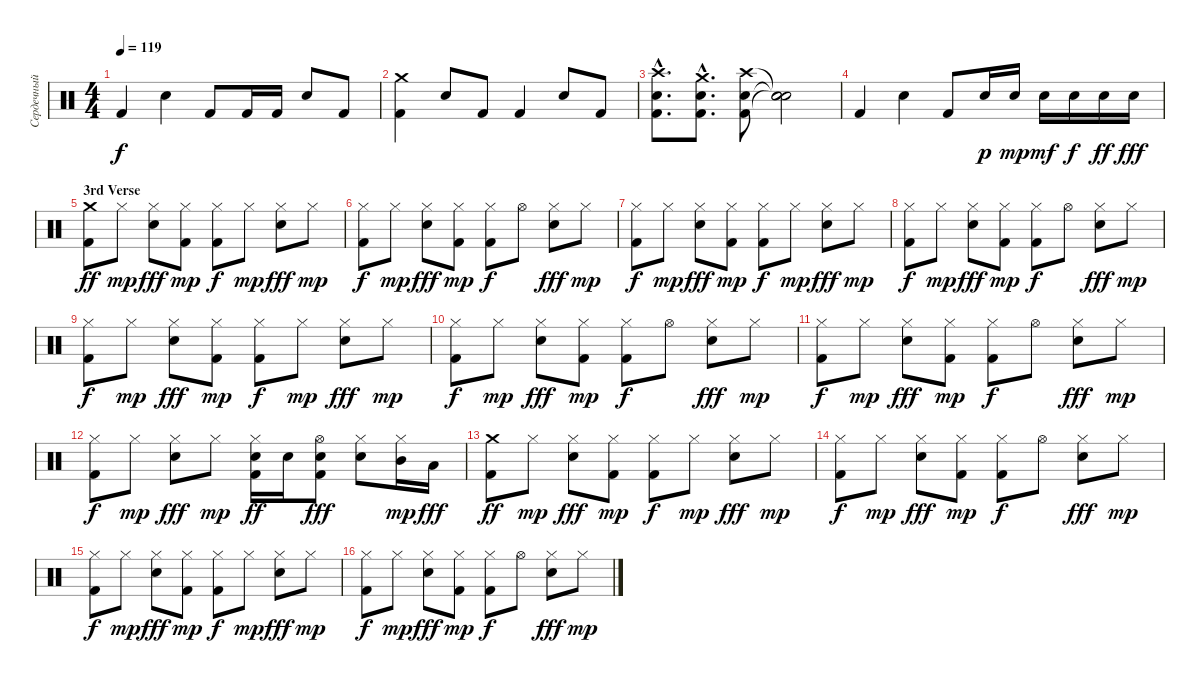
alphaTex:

\track ("Сердечный (Ударные)" "Сердечный ") {instrument percussion}
\staff {score}
\articulation defaults
\ts (4 4)
\tempo 119
\clef neutral
\ks c "Kick (hit) 2".4{dy f} "Electric Snare (hit)".4 "Kick (hit) 2".8 "Kick (hit) 2".16 "Kick (hit) 2".16 "Electric Snare (hit)".8 "Kick (hit) 2".8
|
("Kick (hit) 2" "Crash medium (hit)").4 "Electric Snare (hit)".8 "Kick (hit) 2".8 "Kick (hit) 2".4 "Electric Snare (hit)".8 "Kick (hit) 2".8 |
("Kick (hit) 2"{hac} "Electric Snare (hit)"{hac} "Crash high (hit)"{hac}).8{d} ("Kick (hit) 2"{hac} "Electric Snare (hit)"{hac} "Crash medium (hit)"{hac}).8{d} ("Kick (hit) 2" "Electric Snare (hit)" "Crash high (hit)").8 ("Snare (hit)"{t} "Snare (hit)"{t} "Snare (hit)"{t}).2 |
"Kick (hit) 2".4 "Electric Snare (hit)".4 "Kick (hit) 2".8 "Electric Snare (hit)".16{dy p} "Electric Snare (hit)".16{dy mp} "Electric Snare (hit)".16{dy mf} "Electric Snare (hit)".16{dy f} "Electric Snare (hit)".16{dy ff} "Electric Snare (hit)".16{dy fff} |
\section ("" "3rd Verse")
("Kick (hit) 2" "Crash medium (hit)").8{dy ff} "Hi-Hat (closed)".8{dy mp} ("Hi-Hat (closed)" "Electric Snare (hit)").8{dy fff} ("Hi-Hat (closed)" "Kick (hit) 2").8{dy mp} ("Hi-Hat (closed)" "Kick (hit) 2").8{dy f} "Hi-Hat (closed)".8{dy mp} ("Hi-Hat (closed)" "Electric Snare (hit)").8{dy fff} "Hi-Hat (closed)".8{dy mp} |
("Kick (hit) 2" "Hi-Hat (closed)").8{dy f} "Hi-Hat (closed)".8{dy mp} ("Hi-Hat (closed)" "Electric Snare (hit)").8{dy fff} ("Hi-Hat (closed)" "Kick (hit) 2").8{dy mp} ("Hi-Hat (closed)" "Kick (hit) 2").8{dy f} "Hi-Hat (open)".8 ("Hi-Hat (closed)" "Electric Snare (hit)").8{dy fff} "Hi-Hat (closed)".8{dy mp} |
("Kick (hit) 2" "Hi-Hat (closed)").8{dy f} "Hi-Hat (closed)".8{dy mp} ("Hi-Hat (closed)" "Electric Snare (hit)").8{dy fff} ("Hi-Hat (closed)" "Kick (hit) 2").8{dy mp} ("Hi-Hat (closed)" "Kick (hit) 2").8{dy f} "Hi-Hat (closed)".8{dy mp} ("Hi-Hat (closed)" "Electric Snare (hit)").8{dy fff} "Hi-Hat (closed)".8{dy mp} |
("Kick (hit) 2" "Hi-Hat (closed)").8{dy f} "Hi-Hat (closed)".8{dy mp} ("Hi-Hat (closed)" "Electric Snare (hit)").8{dy fff} ("Hi-Hat (closed)" "Kick (hit) 2").8{dy mp} ("Hi-Hat (closed)" "Kick (hit) 2").8{dy f} "Hi-Hat (open)".8 ("Hi-Hat (closed)" "Electric Snare (hit)").8{dy fff} "Hi-Hat (closed)".8{dy mp} |
("Kick (hit) 2" "Hi-Hat (closed)").8{dy f} "Hi-Hat (closed)".8{dy mp} ("Hi-Hat (closed)" "Electric Snare (hit)").8{dy fff} ("Hi-Hat (closed)" "Kick (hit) 2").8{dy mp} ("Hi-Hat (closed)" "Kick (hit) 2").8{dy f} "Hi-Hat (closed)".8{dy mp} ("Hi-Hat (closed)" "Electric Snare (hit)").8{dy fff} "Hi-Hat (closed)".8{dy mp} |
("Kick (hit) 2" "Hi-Hat (closed)").8{dy f} "Hi-Hat (closed)".8{dy mp} ("Hi-Hat (closed)" "Electric Snare (hit)").8{dy fff} ("Hi-Hat (closed)" "Kick (hit) 2").8{dy mp} ("Hi-Hat (closed)" "Kick (hit) 2").8{dy f} "Hi-Hat (open)".8 ("Hi-Hat (closed)" "Electric Snare (hit)").8{dy fff} "Hi-Hat (closed)".8{dy mp} |
("Kick (hit) 2" "Hi-Hat (closed)").8{dy f} "Hi-Hat (closed)".8{dy mp} ("Hi-Hat (closed)" "Electric Snare (hit)").8{dy fff} ("Hi-Hat (closed)" "Kick (hit) 2").8{dy mp} ("Hi-Hat (closed)" "Kick (hit) 2").8{dy f} "Hi-Hat (open)".8 ("Hi-Hat (closed)" "Electric Snare (hit)").8{dy fff} "Hi-Hat (closed)".8{dy mp} |
("Kick (hit) 2" "Hi-Hat (closed)").8{dy f} "Hi-Hat (closed)".8{dy mp} ("Hi-Hat (closed)" "Electric Snare (hit)").8{dy fff} "Hi-Hat (closed)".8{dy mp} ("Electric Snare (hit)" "Hi-Hat (closed)" "Kick (hit) 2").16{dy ff} "Electric Snare (hit)".16 ("Electric Snare (hit)" "Hi-Hat (open)" "Kick (hit) 2").8{dy fff} ("Hi-Hat (closed)" "Electric Snare (hit)").8 ("Mid Tom (hit)" "Hi-Hat (closed)").16{dy mp} "Low Tom (hit)".16{dy fff} |
("Kick (hit) 2" "Crash medium (hit)").8{dy ff} "Hi-Hat (closed)".8{dy mp} ("Hi-Hat (closed)" "Electric Snare (hit)").8{dy fff} ("Hi-Hat (closed)" "Kick (hit) 2").8{dy mp} ("Hi-Hat (closed)" "Kick (hit) 2").8{dy f} "Hi-Hat (closed)".8{dy mp} ("Hi-Hat (closed)" "Electric Snare (hit)").8{dy fff} "Hi-Hat (closed)".8{dy mp} |
("Kick (hit) 2" "Hi-Hat (closed)").8{dy f} "Hi-Hat (closed)".8{dy mp} ("Hi-Hat (closed)" "Electric Snare (hit)").8{dy fff} ("Hi-Hat (closed)" "Kick (hit) 2").8{dy mp} ("Hi-Hat (closed)" "Kick (hit) 2").8{dy f} "Hi-Hat (open)".8 ("Hi-Hat (closed)" "Electric Snare (hit)").8{dy fff} "Hi-Hat (closed)".8{dy mp} |
("Kick (hit) 2" "Hi-Hat (closed)").8{dy f} "Hi-Hat (closed)".8{dy mp} ("Hi-Hat (closed)" "Electric Snare (hit)").8{dy fff} ("Hi-Hat (closed)" "Kick (hit) 2").8{dy mp} ("Hi-Hat (closed)" "Kick (hit) 2").8{dy f} "Hi-Hat (closed)".8{dy mp} ("Hi-Hat (closed)" "Electric Snare (hit)").8{dy fff} "Hi-Hat (closed)".8{dy mp} |
("Kick (hit) 2" "Hi-Hat (closed)").8{dy f} "Hi-Hat (closed)".8{dy mp} ("Hi-Hat (closed)" "Electric Snare (hit)").8{dy fff} ("Hi-Hat (closed)" "Kick (hit) 2").8{dy mp} ("Hi-Hat (closed)" "Kick (hit) 2").8{dy f} "Hi-Hat (open)".8 ("Hi-Hat (closed)" "Electric Snare (hit)").8{dy fff} "Hi-Hat (closed)".8{dy mp}
